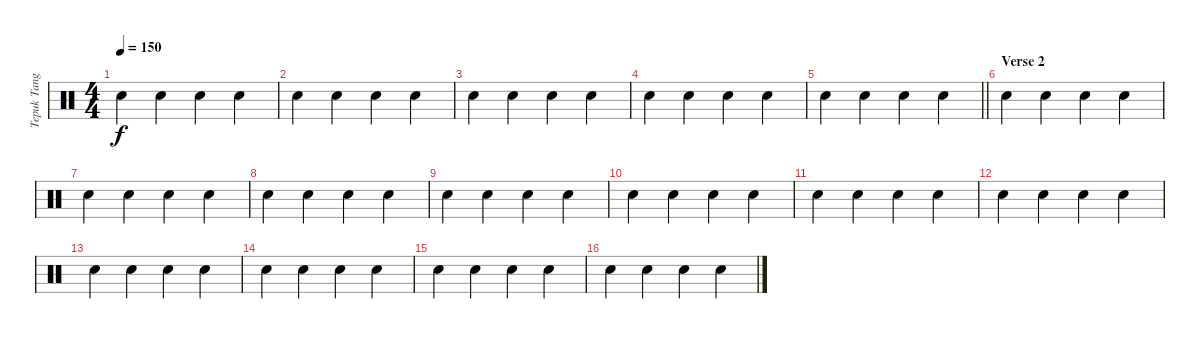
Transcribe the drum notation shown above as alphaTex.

\track ("Tepuk Tangan" "Tepuk Tang") {instrument percussion}
\staff {score}
\articulation defaults
\ts (4 4)
\tempo 150
\clef neutral
\ks c "Hand Clap (hit)".4{dy f} "Hand Clap (hit)".4 "Hand Clap (hit)".4 "Hand Clap (hit)".4
|
"Hand Clap (hit)".4 "Hand Clap (hit)".4 "Hand Clap (hit)".4 "Hand Clap (hit)".4 |
"Hand Clap (hit)".4 "Hand Clap (hit)".4 "Hand Clap (hit)".4 "Hand Clap (hit)".4 |
"Hand Clap (hit)".4 "Hand Clap (hit)".4 "Hand Clap (hit)".4 "Hand Clap (hit)".4 |
\barLineRight lightlight "Hand Clap (hit)".4 "Hand Clap (hit)".4 "Hand Clap (hit)".4 "Hand Clap (hit)".4
|
\section ("" "Verse 2")
"Hand Clap (hit)".4 "Hand Clap (hit)".4 "Hand Clap (hit)".4 "Hand Clap (hit)".4 |
"Hand Clap (hit)".4 "Hand Clap (hit)".4 "Hand Clap (hit)".4 "Hand Clap (hit)".4 |
"Hand Clap (hit)".4 "Hand Clap (hit)".4 "Hand Clap (hit)".4 "Hand Clap (hit)".4 |
"Hand Clap (hit)".4 "Hand Clap (hit)".4 "Hand Clap (hit)".4 "Hand Clap (hit)".4 |
"Hand Clap (hit)".4 "Hand Clap (hit)".4 "Hand Clap (hit)".4 "Hand Clap (hit)".4 |
"Hand Clap (hit)".4 "Hand Clap (hit)".4 "Hand Clap (hit)".4 "Hand Clap (hit)".4 |
"Hand Clap (hit)".4 "Hand Clap (hit)".4 "Hand Clap (hit)".4 "Hand Clap (hit)".4 |
"Hand Clap (hit)".4 "Hand Clap (hit)".4 "Hand Clap (hit)".4 "Hand Clap (hit)".4 |
"Hand Clap (hit)".4 "Hand Clap (hit)".4 "Hand Clap (hit)".4 "Hand Clap (hit)".4 |
"Hand Clap (hit)".4 "Hand Clap (hit)".4 "Hand Clap (hit)".4 "Hand Clap (hit)".4 |
"Hand Clap (hit)".4 "Hand Clap (hit)".4 "Hand Clap (hit)".4 "Hand Clap (hit)".4
